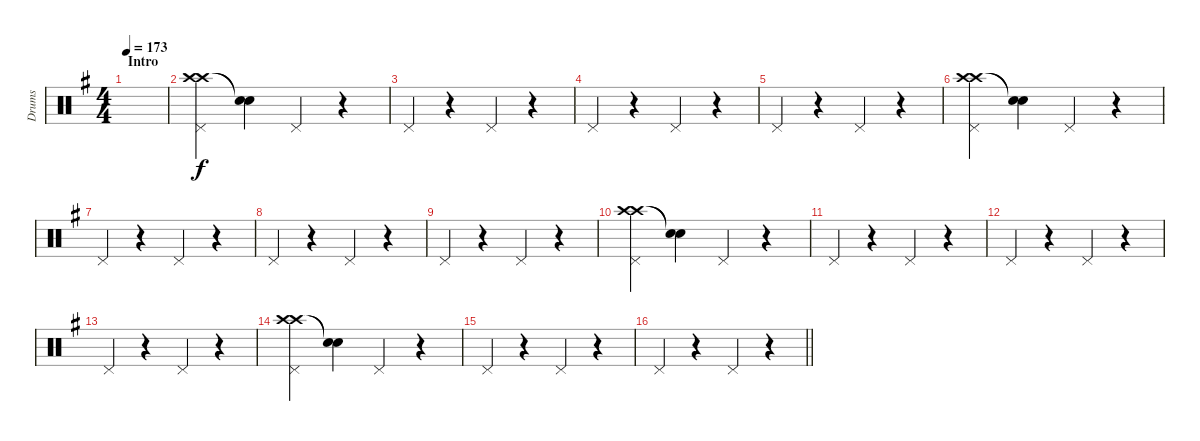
\track ("Drums" "Drums") {instrument percussion}
\staff {score}
\articulation defaults
\ts (4 4)
\section ("" "Intro")
\tempo 173
\clef neutral
\ks g
|
("Crash high (hit)" "Crash high (hit)" "Pedal Hi-Hat (hit)").4 ("Snare (hit)"{t} "Snare (hit)"{t}).4 "Pedal Hi-Hat (hit)".4 r.4 |
"Pedal Hi-Hat (hit)".4 r.4 "Pedal Hi-Hat (hit)".4 r.4 |
"Pedal Hi-Hat (hit)".4 r.4 "Pedal Hi-Hat (hit)".4 r.4 |
"Pedal Hi-Hat (hit)".4 r.4 "Pedal Hi-Hat (hit)".4 r.4 |
("Crash high (hit)" "Crash high (hit)" "Pedal Hi-Hat (hit)").4 ("Snare (hit)"{t} "Snare (hit)"{t}).4 "Pedal Hi-Hat (hit)".4 r.4 |
"Pedal Hi-Hat (hit)".4 r.4 "Pedal Hi-Hat (hit)".4 r.4 |
"Pedal Hi-Hat (hit)".4 r.4 "Pedal Hi-Hat (hit)".4 r.4 |
"Pedal Hi-Hat (hit)".4 r.4 "Pedal Hi-Hat (hit)".4 r.4 |
("Crash high (hit)" "Crash high (hit)" "Pedal Hi-Hat (hit)").4 ("Snare (hit)"{t} "Snare (hit)"{t}).4 "Pedal Hi-Hat (hit)".4 r.4 |
"Pedal Hi-Hat (hit)".4 r.4 "Pedal Hi-Hat (hit)".4 r.4 |
"Pedal Hi-Hat (hit)".4 r.4 "Pedal Hi-Hat (hit)".4 r.4 |
"Pedal Hi-Hat (hit)".4 r.4 "Pedal Hi-Hat (hit)".4 r.4 |
("Crash high (hit)" "Crash high (hit)" "Pedal Hi-Hat (hit)").4 ("Snare (hit)"{t} "Snare (hit)"{t}).4 "Pedal Hi-Hat (hit)".4 r.4 |
"Pedal Hi-Hat (hit)".4 r.4 "Pedal Hi-Hat (hit)".4 r.4 |
\barLineRight lightlight "Pedal Hi-Hat (hit)".4
r.4 "Pedal Hi-Hat (hit)".4 r.4
